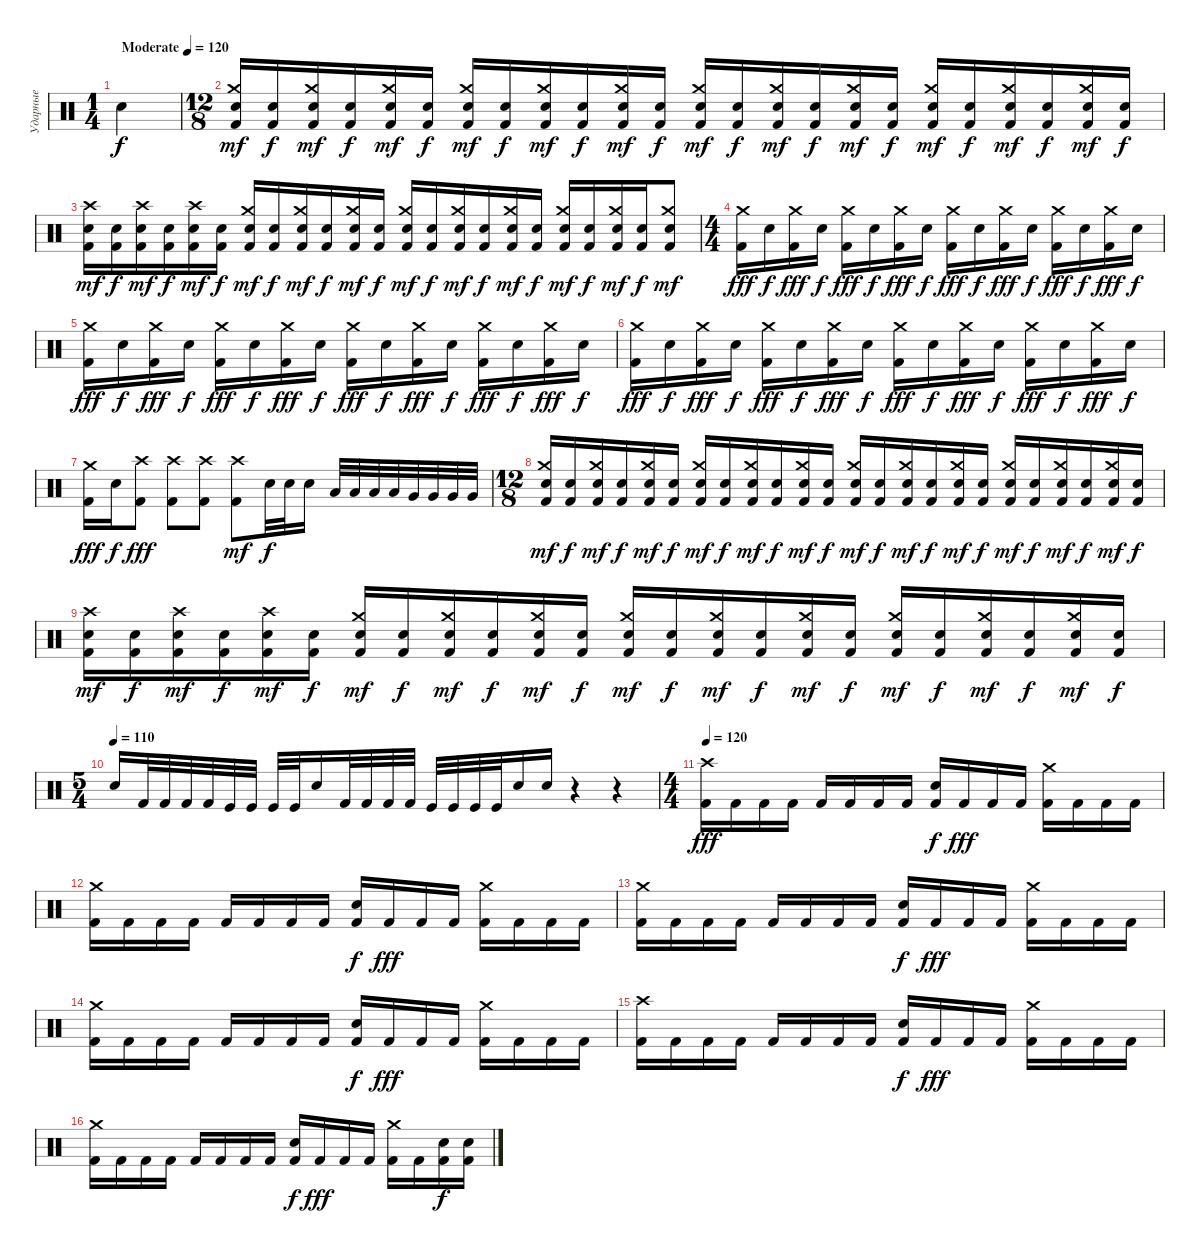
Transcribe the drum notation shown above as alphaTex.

\track ("Ударные" "Ударные") {instrument percussion}
\staff {score}
\articulation defaults
\ts (1 4)
\tempo (120 "Moderate")
\clef neutral
\ks c "Electric Snare (hit)".4{dy f}
|
\ts (12 8)
("Crash medium (hit)" "Electric Snare (hit)" "Kick (hit) 2").16{dy mf} ("Electric Snare (hit)" "Kick (hit) 2").16{dy f} ("Crash medium (hit)" "Electric Snare (hit)" "Kick (hit) 2").16{dy mf} ("Electric Snare (hit)" "Kick (hit) 2").16{dy f} ("Crash medium (hit)" "Electric Snare (hit)" "Kick (hit) 2").16{dy mf} ("Electric Snare (hit)" "Kick (hit) 2").16{dy f} ("Crash medium (hit)" "Electric Snare (hit)" "Kick (hit) 2").16{dy mf} ("Electric Snare (hit)" "Kick (hit) 2").16{dy f} ("Crash medium (hit)" "Electric Snare (hit)" "Kick (hit) 2").16{dy mf} ("Electric Snare (hit)" "Kick (hit) 2").16{dy f} ("Crash medium (hit)" "Electric Snare (hit)" "Kick (hit) 2").16{dy mf} ("Electric Snare (hit)" "Kick (hit) 2").16{dy f} ("Crash medium (hit)" "Electric Snare (hit)" "Kick (hit) 2").16{dy mf} ("Electric Snare (hit)" "Kick (hit) 2").16{dy f} ("Crash medium (hit)" "Electric Snare (hit)" "Kick (hit) 2").16{dy mf} ("Electric Snare (hit)" "Kick (hit) 2").16{dy f} ("Crash medium (hit)" "Electric Snare (hit)" "Kick (hit) 2").16{dy mf} ("Electric Snare (hit)" "Kick (hit) 2").16{dy f} ("Crash medium (hit)" "Electric Snare (hit)" "Kick (hit) 2").16{dy mf} ("Electric Snare (hit)" "Kick (hit) 2").16{dy f} ("Crash medium (hit)" "Electric Snare (hit)" "Kick (hit) 2").16{dy mf} ("Electric Snare (hit)" "Kick (hit) 2").16{dy f} ("Crash medium (hit)" "Electric Snare (hit)" "Kick (hit) 2").16{dy mf} ("Electric Snare (hit)" "Kick (hit) 2").16{dy f} |
("Crash high (hit)" "Electric Snare (hit)" "Kick (hit) 2").16{dy mf} ("Electric Snare (hit)" "Kick (hit) 2").16{dy f} ("Crash high (hit)" "Electric Snare (hit)" "Kick (hit) 2").16{dy mf} ("Electric Snare (hit)" "Kick (hit) 2").16{dy f} ("Crash high (hit)" "Electric Snare (hit)" "Kick (hit) 2").16{dy mf} ("Electric Snare (hit)" "Kick (hit) 2").16{dy f} ("Crash medium (hit)" "Electric Snare (hit)" "Kick (hit) 2").16{dy mf} ("Electric Snare (hit)" "Kick (hit) 2").16{dy f} ("Crash medium (hit)" "Electric Snare (hit)" "Kick (hit) 2").16{dy mf} ("Electric Snare (hit)" "Kick (hit) 2").16{dy f} ("Crash medium (hit)" "Electric Snare (hit)" "Kick (hit) 2").16{dy mf} ("Electric Snare (hit)" "Kick (hit) 2").16{dy f} ("Crash medium (hit)" "Electric Snare (hit)" "Kick (hit) 2").16{dy mf} ("Electric Snare (hit)" "Kick (hit) 2").16{dy f} ("Crash medium (hit)" "Electric Snare (hit)" "Kick (hit) 2").16{dy mf} ("Electric Snare (hit)" "Kick (hit) 2").16{dy f} ("Crash medium (hit)" "Electric Snare (hit)" "Kick (hit) 2").16{dy mf} ("Electric Snare (hit)" "Kick (hit) 2").16{dy f} ("Crash medium (hit)" "Electric Snare (hit)" "Kick (hit) 2").16{dy mf} ("Electric Snare (hit)" "Kick (hit) 2").16{dy f} ("Crash medium (hit)" "Electric Snare (hit)" "Kick (hit) 2").16{dy mf} ("Electric Snare (hit)" "Kick (hit) 2").16{dy f} ("Crash medium (hit)" "Electric Snare (hit)" "Kick (hit) 2").8{dy mf} |
\ts (4 4)
("Crash medium (hit)" "Kick (hit) 2").16{dy fff} "Electric Snare (hit)".16{dy f} ("Crash medium (hit)" "Kick (hit) 2").16{dy fff} "Electric Snare (hit)".16{dy f} ("Crash medium (hit)" "Kick (hit) 2").16{dy fff} "Electric Snare (hit)".16{dy f} ("Crash medium (hit)" "Kick (hit) 2").16{dy fff} "Electric Snare (hit)".16{dy f} ("Crash medium (hit)" "Kick (hit) 2").16{dy fff} "Electric Snare (hit)".16{dy f} ("Crash medium (hit)" "Kick (hit) 2").16{dy fff} "Electric Snare (hit)".16{dy f} ("Crash medium (hit)" "Kick (hit) 2").16{dy fff} "Electric Snare (hit)".16{dy f} ("Crash medium (hit)" "Kick (hit) 2").16{dy fff} "Electric Snare (hit)".16{dy f} |
("Crash medium (hit)" "Kick (hit) 2").16{dy fff} "Electric Snare (hit)".16{dy f} ("Crash medium (hit)" "Kick (hit) 2").16{dy fff} "Electric Snare (hit)".16{dy f} ("Crash medium (hit)" "Kick (hit) 2").16{dy fff} "Electric Snare (hit)".16{dy f} ("Crash medium (hit)" "Kick (hit) 2").16{dy fff} "Electric Snare (hit)".16{dy f} ("Crash medium (hit)" "Kick (hit) 2").16{dy fff} "Electric Snare (hit)".16{dy f} ("Crash medium (hit)" "Kick (hit) 2").16{dy fff} "Electric Snare (hit)".16{dy f} ("Crash medium (hit)" "Kick (hit) 2").16{dy fff} "Electric Snare (hit)".16{dy f} ("Crash medium (hit)" "Kick (hit) 2").16{dy fff} "Electric Snare (hit)".16{dy f} |
("Crash medium (hit)" "Kick (hit) 2").16{dy fff} "Electric Snare (hit)".16{dy f} ("Crash medium (hit)" "Kick (hit) 2").16{dy fff} "Electric Snare (hit)".16{dy f} ("Crash medium (hit)" "Kick (hit) 2").16{dy fff} "Electric Snare (hit)".16{dy f} ("Crash medium (hit)" "Kick (hit) 2").16{dy fff} "Electric Snare (hit)".16{dy f} ("Crash medium (hit)" "Kick (hit) 2").16{dy fff} "Electric Snare (hit)".16{dy f} ("Crash medium (hit)" "Kick (hit) 2").16{dy fff} "Electric Snare (hit)".16{dy f} ("Crash medium (hit)" "Kick (hit) 2").16{dy fff} "Electric Snare (hit)".16{dy f} ("Crash medium (hit)" "Kick (hit) 2").16{dy fff} "Electric Snare (hit)".16{dy f} |
("Crash medium (hit)" "Kick (hit) 2").16{dy fff} "Electric Snare (hit)".16{dy f} ("Crash high (hit)" "Kick (hit) 2").8{dy fff} ("Crash high (hit)" "Kick (hit) 2").8 ("Crash high (hit)" "Kick (hit) 2").8 ("Crash high (hit)" "Kick (hit) 2").8{dy mf} "Electric Snare (hit)".32{dy f} "Electric Snare (hit)".32 "Electric Snare (hit)".16 "Low Tom (hit)".32 "Low Tom (hit)".32 "Low Tom (hit)".32 "Low Tom (hit)".32 "Very Low Tom (hit)".32 "Very Low Tom (hit)".32 "Very Low Tom (hit)".32 "Very Low Tom (hit)".32 |
\ts (12 8)
("Crash medium (hit)" "Electric Snare (hit)" "Kick (hit) 2").16{dy mf} ("Electric Snare (hit)" "Kick (hit) 2").16{dy f} ("Crash medium (hit)" "Electric Snare (hit)" "Kick (hit) 2").16{dy mf} ("Electric Snare (hit)" "Kick (hit) 2").16{dy f} ("Crash medium (hit)" "Electric Snare (hit)" "Kick (hit) 2").16{dy mf} ("Electric Snare (hit)" "Kick (hit) 2").16{dy f} ("Crash medium (hit)" "Electric Snare (hit)" "Kick (hit) 2").16{dy mf} ("Electric Snare (hit)" "Kick (hit) 2").16{dy f} ("Crash medium (hit)" "Electric Snare (hit)" "Kick (hit) 2").16{dy mf} ("Electric Snare (hit)" "Kick (hit) 2").16{dy f} ("Crash medium (hit)" "Electric Snare (hit)" "Kick (hit) 2").16{dy mf} ("Electric Snare (hit)" "Kick (hit) 2").16{dy f} ("Crash medium (hit)" "Electric Snare (hit)" "Kick (hit) 2").16{dy mf} ("Electric Snare (hit)" "Kick (hit) 2").16{dy f} ("Crash medium (hit)" "Electric Snare (hit)" "Kick (hit) 2").16{dy mf} ("Electric Snare (hit)" "Kick (hit) 2").16{dy f} ("Crash medium (hit)" "Electric Snare (hit)" "Kick (hit) 2").16{dy mf} ("Electric Snare (hit)" "Kick (hit) 2").16{dy f} ("Crash medium (hit)" "Electric Snare (hit)" "Kick (hit) 2").16{dy mf} ("Electric Snare (hit)" "Kick (hit) 2").16{dy f} ("Crash medium (hit)" "Electric Snare (hit)" "Kick (hit) 2").16{dy mf} ("Electric Snare (hit)" "Kick (hit) 2").16{dy f} ("Crash medium (hit)" "Electric Snare (hit)" "Kick (hit) 2").16{dy mf} ("Electric Snare (hit)" "Kick (hit) 2").16{dy f} |
("Crash high (hit)" "Electric Snare (hit)" "Kick (hit) 2").16{dy mf} ("Electric Snare (hit)" "Kick (hit) 2").16{dy f} ("Crash high (hit)" "Electric Snare (hit)" "Kick (hit) 2").16{dy mf} ("Electric Snare (hit)" "Kick (hit) 2").16{dy f} ("Crash high (hit)" "Electric Snare (hit)" "Kick (hit) 2").16{dy mf} ("Electric Snare (hit)" "Kick (hit) 2").16{dy f} ("Crash medium (hit)" "Electric Snare (hit)" "Kick (hit) 2").16{dy mf} ("Electric Snare (hit)" "Kick (hit) 2").16{dy f} ("Crash medium (hit)" "Electric Snare (hit)" "Kick (hit) 2").16{dy mf} ("Electric Snare (hit)" "Kick (hit) 2").16{dy f} ("Crash medium (hit)" "Electric Snare (hit)" "Kick (hit) 2").16{dy mf} ("Electric Snare (hit)" "Kick (hit) 2").16{dy f} ("Crash medium (hit)" "Electric Snare (hit)" "Kick (hit) 2").16{dy mf} ("Electric Snare (hit)" "Kick (hit) 2").16{dy f} ("Crash medium (hit)" "Electric Snare (hit)" "Kick (hit) 2").16{dy mf} ("Electric Snare (hit)" "Kick (hit) 2").16{dy f} ("Crash medium (hit)" "Electric Snare (hit)" "Kick (hit) 2").16{dy mf} ("Electric Snare (hit)" "Kick (hit) 2").16{dy f} ("Crash medium (hit)" "Electric Snare (hit)" "Kick (hit) 2").16{dy mf} ("Electric Snare (hit)" "Kick (hit) 2").16{dy f} ("Crash medium (hit)" "Electric Snare (hit)" "Kick (hit) 2").16{dy mf} ("Electric Snare (hit)" "Kick (hit) 2").16{dy f} ("Crash medium (hit)" "Electric Snare (hit)" "Kick (hit) 2").16{dy mf} ("Electric Snare (hit)" "Kick (hit) 2").16{dy f} |
\ts (5 4)
\tempo (110)
"Electric Snare (hit)".16 "Kick (hit) 2".32 "Kick (hit) 2".32 "Kick (hit) 2".32 "Kick (hit) 2".32 "Kick (hit)".32 "Kick (hit)".32 "Kick (hit)".32 "Kick (hit)".32 "Electric Snare (hit)".16 "Kick (hit) 2".32 "Kick (hit) 2".32 "Kick (hit) 2".32 "Kick (hit) 2".32 "Kick (hit)".32 "Kick (hit)".32 "Kick (hit)".32 "Kick (hit)".32 "Electric Snare (hit)".16 "Electric Snare (hit)".16 r.4 r.4 |
\ts (4 4)
\tempo 120
("Crash high (hit)" "Kick (hit) 2").16{dy fff} "Kick (hit) 2".16 "Kick (hit) 2".16 "Kick (hit) 2".16 "Kick (hit) 2".16 "Kick (hit) 2".16 "Kick (hit) 2".16 "Kick (hit) 2".16 ("Electric Snare (hit)" "Kick (hit) 2").16{dy f} "Kick (hit) 2".16{dy fff} "Kick (hit) 2".16 "Kick (hit) 2".16 ("Crash medium (hit)" "Kick (hit) 2").16 "Kick (hit) 2".16 "Kick (hit) 2".16 "Kick (hit) 2".16 |
("Crash medium (hit)" "Kick (hit) 2").16 "Kick (hit) 2".16 "Kick (hit) 2".16 "Kick (hit) 2".16 "Kick (hit) 2".16 "Kick (hit) 2".16 "Kick (hit) 2".16 "Kick (hit) 2".16 ("Electric Snare (hit)" "Kick (hit) 2").16{dy f} "Kick (hit) 2".16{dy fff} "Kick (hit) 2".16 "Kick (hit) 2".16 ("Crash medium (hit)" "Kick (hit) 2").16 "Kick (hit) 2".16 "Kick (hit) 2".16 "Kick (hit) 2".16 |
("Crash medium (hit)" "Kick (hit) 2").16 "Kick (hit) 2".16 "Kick (hit) 2".16 "Kick (hit) 2".16 "Kick (hit) 2".16 "Kick (hit) 2".16 "Kick (hit) 2".16 "Kick (hit) 2".16 ("Electric Snare (hit)" "Kick (hit) 2").16{dy f} "Kick (hit) 2".16{dy fff} "Kick (hit) 2".16 "Kick (hit) 2".16 ("Crash medium (hit)" "Kick (hit) 2").16 "Kick (hit) 2".16 "Kick (hit) 2".16 "Kick (hit) 2".16 |
("Crash medium (hit)" "Kick (hit) 2").16 "Kick (hit) 2".16 "Kick (hit) 2".16 "Kick (hit) 2".16 "Kick (hit) 2".16 "Kick (hit) 2".16 "Kick (hit) 2".16 "Kick (hit) 2".16 ("Electric Snare (hit)" "Kick (hit) 2").16{dy f} "Kick (hit) 2".16{dy fff} "Kick (hit) 2".16 "Kick (hit) 2".16 ("Crash medium (hit)" "Kick (hit) 2").16 "Kick (hit) 2".16 "Kick (hit) 2".16 "Kick (hit) 2".16 |
("Crash high (hit)" "Kick (hit) 2").16 "Kick (hit) 2".16 "Kick (hit) 2".16 "Kick (hit) 2".16 "Kick (hit) 2".16 "Kick (hit) 2".16 "Kick (hit) 2".16 "Kick (hit) 2".16 ("Electric Snare (hit)" "Kick (hit) 2").16{dy f} "Kick (hit) 2".16{dy fff} "Kick (hit) 2".16 "Kick (hit) 2".16 ("Crash medium (hit)" "Kick (hit) 2").16 "Kick (hit) 2".16 "Kick (hit) 2".16 "Kick (hit) 2".16 |
("Crash medium (hit)" "Kick (hit) 2").16 "Kick (hit) 2".16 "Kick (hit) 2".16 "Kick (hit) 2".16 "Kick (hit) 2".16 "Kick (hit) 2".16 "Kick (hit) 2".16 "Kick (hit) 2".16 ("Electric Snare (hit)" "Kick (hit) 2").16{dy f} "Kick (hit) 2".16{dy fff} "Kick (hit) 2".16 "Kick (hit) 2".16 ("Crash medium (hit)" "Kick (hit) 2").16 "Kick (hit) 2".16 ("Electric Snare (hit)" "Kick (hit) 2").16{dy f} ("Electric Snare (hit)" "Kick (hit) 2").16
